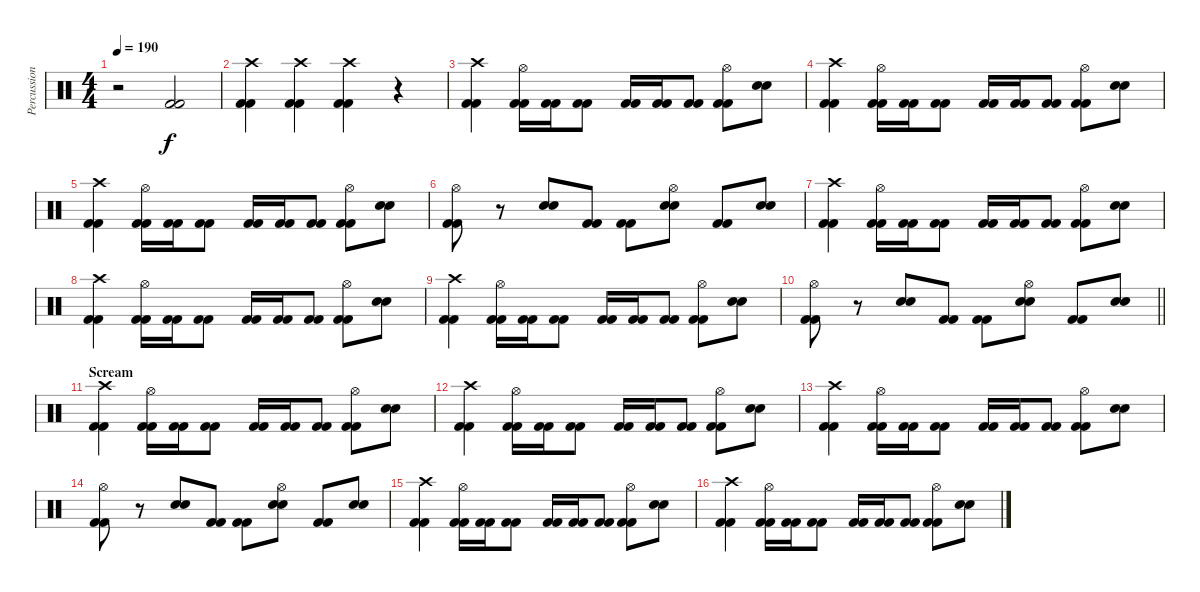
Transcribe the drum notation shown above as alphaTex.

\track ("Percussions" "Percussion") {instrument percussion}
\staff {score}
\articulation defaults
\ts (4 4)
\tempo 190
\clef neutral
\ks c
r.2{dy f} ("Kick (hit) 2" "Kick (hit) 2").2 |
("Kick (hit) 2" "Kick (hit) 2" "Crash high (hit)").4 ("Kick (hit) 2" "Kick (hit) 2" "Crash high (hit)").4 ("Kick (hit) 2" "Kick (hit) 2" "Crash high (hit)").4 r.4 |
("Kick (hit) 2" "Kick (hit) 2" "Crash high (hit)").4 ("Kick (hit) 2" "Kick (hit) 2" "Hi-Hat (open)").16 ("Kick (hit) 2" "Kick (hit) 2").16 ("Kick (hit) 2" "Kick (hit) 2").8 ("Kick (hit) 2" "Kick (hit) 2").16 ("Kick (hit) 2" "Kick (hit) 2").16 ("Kick (hit) 2" "Kick (hit) 2").8 ("Kick (hit) 2" "Kick (hit) 2" "Hi-Hat (open)").8 ("Electric Snare (hit)" "Electric Snare (hit)").8 |
("Kick (hit) 2" "Kick (hit) 2" "Crash high (hit)").4 ("Kick (hit) 2" "Kick (hit) 2" "Hi-Hat (open)").16 ("Kick (hit) 2" "Kick (hit) 2").16 ("Kick (hit) 2" "Kick (hit) 2").8 ("Kick (hit) 2" "Kick (hit) 2").16 ("Kick (hit) 2" "Kick (hit) 2").16 ("Kick (hit) 2" "Kick (hit) 2").8 ("Kick (hit) 2" "Kick (hit) 2" "Hi-Hat (open)").8 ("Electric Snare (hit)" "Electric Snare (hit)").8 |
("Kick (hit) 2" "Kick (hit) 2" "Crash high (hit)").4 ("Kick (hit) 2" "Kick (hit) 2" "Hi-Hat (open)").16 ("Kick (hit) 2" "Kick (hit) 2").16 ("Kick (hit) 2" "Kick (hit) 2").8 ("Kick (hit) 2" "Kick (hit) 2").16 ("Kick (hit) 2" "Kick (hit) 2").16 ("Kick (hit) 2" "Kick (hit) 2").8 ("Kick (hit) 2" "Kick (hit) 2" "Hi-Hat (open)").8 ("Electric Snare (hit)" "Electric Snare (hit)").8 |
("Kick (hit) 2" "Kick (hit) 2" "Hi-Hat (open)").8 r.8 ("Electric Snare (hit)" "Electric Snare (hit)").8 ("Kick (hit) 2" "Kick (hit) 2").8 ("Kick (hit) 2" "Kick (hit) 2").8 ("Electric Snare (hit)" "Electric Snare (hit)" "Hi-Hat (open)").8 ("Kick (hit) 2" "Kick (hit) 2").8 ("Electric Snare (hit)" "Electric Snare (hit)").8 |
("Kick (hit) 2" "Kick (hit) 2" "Crash high (hit)").4 ("Kick (hit) 2" "Kick (hit) 2" "Hi-Hat (open)").16 ("Kick (hit) 2" "Kick (hit) 2").16 ("Kick (hit) 2" "Kick (hit) 2").8 ("Kick (hit) 2" "Kick (hit) 2").16 ("Kick (hit) 2" "Kick (hit) 2").16 ("Kick (hit) 2" "Kick (hit) 2").8 ("Kick (hit) 2" "Kick (hit) 2" "Hi-Hat (open)").8 ("Electric Snare (hit)" "Electric Snare (hit)").8 |
("Kick (hit) 2" "Kick (hit) 2" "Crash high (hit)").4 ("Kick (hit) 2" "Kick (hit) 2" "Hi-Hat (open)").16 ("Kick (hit) 2" "Kick (hit) 2").16 ("Kick (hit) 2" "Kick (hit) 2").8 ("Kick (hit) 2" "Kick (hit) 2").16 ("Kick (hit) 2" "Kick (hit) 2").16 ("Kick (hit) 2" "Kick (hit) 2").8 ("Kick (hit) 2" "Kick (hit) 2" "Hi-Hat (open)").8 ("Electric Snare (hit)" "Electric Snare (hit)").8 |
("Kick (hit) 2" "Kick (hit) 2" "Crash high (hit)").4 ("Kick (hit) 2" "Kick (hit) 2" "Hi-Hat (open)").16 ("Kick (hit) 2" "Kick (hit) 2").16 ("Kick (hit) 2" "Kick (hit) 2").8 ("Kick (hit) 2" "Kick (hit) 2").16 ("Kick (hit) 2" "Kick (hit) 2").16 ("Kick (hit) 2" "Kick (hit) 2").8 ("Kick (hit) 2" "Kick (hit) 2" "Hi-Hat (open)").8 ("Electric Snare (hit)" "Electric Snare (hit)").8 |
\barLineRight lightlight
("Kick (hit) 2" "Kick (hit) 2" "Hi-Hat (open)").8 r.8 ("Electric Snare (hit)" "Electric Snare (hit)").8 ("Kick (hit) 2" "Kick (hit) 2").8 ("Kick (hit) 2" "Kick (hit) 2").8 ("Electric Snare (hit)" "Electric Snare (hit)" "Hi-Hat (open)").8 ("Kick (hit) 2" "Kick (hit) 2").8 ("Electric Snare (hit)" "Electric Snare (hit)").8 |
\section ("" "Scream")
("Kick (hit) 2" "Kick (hit) 2" "Crash high (hit)").4 ("Kick (hit) 2" "Kick (hit) 2" "Hi-Hat (open)").16 ("Kick (hit) 2" "Kick (hit) 2").16 ("Kick (hit) 2" "Kick (hit) 2").8 ("Kick (hit) 2" "Kick (hit) 2").16 ("Kick (hit) 2" "Kick (hit) 2").16 ("Kick (hit) 2" "Kick (hit) 2").8 ("Kick (hit) 2" "Kick (hit) 2" "Hi-Hat (open)").8 ("Electric Snare (hit)" "Electric Snare (hit)").8 |
("Kick (hit) 2" "Kick (hit) 2" "Crash high (hit)").4 ("Kick (hit) 2" "Kick (hit) 2" "Hi-Hat (open)").16 ("Kick (hit) 2" "Kick (hit) 2").16 ("Kick (hit) 2" "Kick (hit) 2").8 ("Kick (hit) 2" "Kick (hit) 2").16 ("Kick (hit) 2" "Kick (hit) 2").16 ("Kick (hit) 2" "Kick (hit) 2").8 ("Kick (hit) 2" "Kick (hit) 2" "Hi-Hat (open)").8 ("Electric Snare (hit)" "Electric Snare (hit)").8 |
("Kick (hit) 2" "Kick (hit) 2" "Crash high (hit)").4 ("Kick (hit) 2" "Kick (hit) 2" "Hi-Hat (open)").16 ("Kick (hit) 2" "Kick (hit) 2").16 ("Kick (hit) 2" "Kick (hit) 2").8 ("Kick (hit) 2" "Kick (hit) 2").16 ("Kick (hit) 2" "Kick (hit) 2").16 ("Kick (hit) 2" "Kick (hit) 2").8 ("Kick (hit) 2" "Kick (hit) 2" "Hi-Hat (open)").8 ("Electric Snare (hit)" "Electric Snare (hit)").8 |
("Kick (hit) 2" "Kick (hit) 2" "Hi-Hat (open)").8 r.8 ("Electric Snare (hit)" "Electric Snare (hit)").8 ("Kick (hit) 2" "Kick (hit) 2").8 ("Kick (hit) 2" "Kick (hit) 2").8 ("Electric Snare (hit)" "Electric Snare (hit)" "Hi-Hat (open)").8 ("Kick (hit) 2" "Kick (hit) 2").8 ("Electric Snare (hit)" "Electric Snare (hit)").8 |
("Kick (hit) 2" "Kick (hit) 2" "Crash high (hit)").4 ("Kick (hit) 2" "Kick (hit) 2" "Hi-Hat (open)").16 ("Kick (hit) 2" "Kick (hit) 2").16 ("Kick (hit) 2" "Kick (hit) 2").8 ("Kick (hit) 2" "Kick (hit) 2").16 ("Kick (hit) 2" "Kick (hit) 2").16 ("Kick (hit) 2" "Kick (hit) 2").8 ("Kick (hit) 2" "Kick (hit) 2" "Hi-Hat (open)").8 ("Electric Snare (hit)" "Electric Snare (hit)").8 |
("Kick (hit) 2" "Kick (hit) 2" "Crash high (hit)").4 ("Kick (hit) 2" "Kick (hit) 2" "Hi-Hat (open)").16 ("Kick (hit) 2" "Kick (hit) 2").16 ("Kick (hit) 2" "Kick (hit) 2").8 ("Kick (hit) 2" "Kick (hit) 2").16 ("Kick (hit) 2" "Kick (hit) 2").16 ("Kick (hit) 2" "Kick (hit) 2").8 ("Kick (hit) 2" "Kick (hit) 2" "Hi-Hat (open)").8 ("Electric Snare (hit)" "Electric Snare (hit)").8
